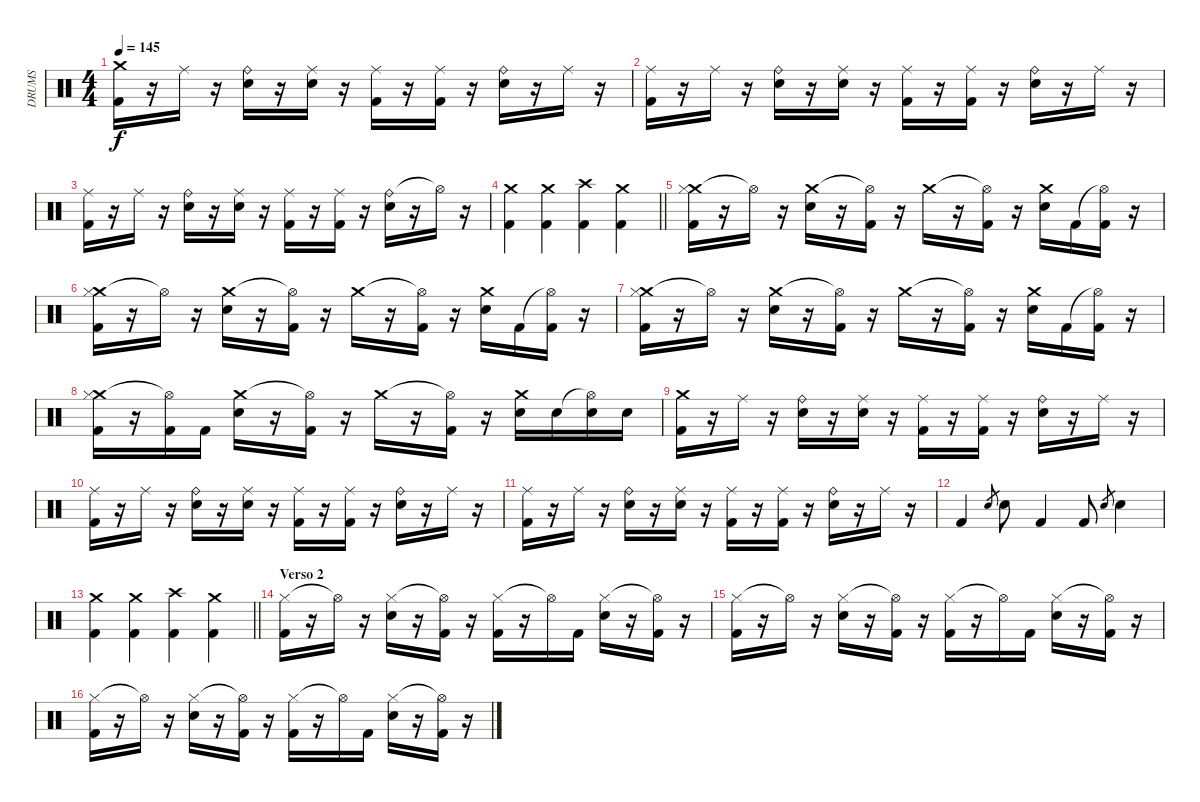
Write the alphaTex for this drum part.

\track ("DRUMS" "DRUMS") {instrument percussion}
\staff {score}
\articulation defaults
\ts (4 4)
\tempo 145
\clef neutral
\ks c
("Crash medium (hit)" "Kick (hit) 2").16{dy f} r.16 "Ride (middle)".16 r.16 ("Ride (bell)" "Electric Snare (hit)").16 r.16 ("Ride (middle)" "Electric Snare (hit)").16 r.16 ("Ride (middle)" "Kick (hit) 2").16 r.16 ("Ride (middle)" "Kick (hit) 2").16 r.16 ("Ride (bell)" "Electric Snare (hit)").16 r.16 "Ride (middle)".16 r.16 |
("Ride (middle)" "Kick (hit) 2").16 r.16 "Ride (middle)".16 r.16 ("Ride (bell)" "Electric Snare (hit)").16 r.16 ("Ride (middle)" "Electric Snare (hit)").16 r.16 ("Ride (middle)" "Kick (hit) 2").16 r.16 ("Ride (middle)" "Kick (hit) 2").16 r.16 ("Ride (bell)" "Electric Snare (hit)").16 r.16 "Ride (middle)".16 r.16 |
("Ride (middle)" "Kick (hit) 2").16 r.16 "Ride (middle)".16 r.16 ("Ride (bell)" "Electric Snare (hit)").16 r.16 ("Ride (middle)" "Electric Snare (hit)").16 r.16 ("Ride (middle)" "Kick (hit) 2").16 r.16 ("Ride (middle)" "Kick (hit) 2").16 r.16 ("Ride (bell)" "Electric Snare (hit)").16 r.16 "Hi-Hat (open)"{t}.16 r.16 |
\barLineRight lightlight
("Crash medium (hit)" "Kick (hit) 2").4 ("Crash medium (hit)" "Kick (hit) 2").4 ("Crash high (hit)" "Kick (hit) 2").4 ("Crash medium (hit)" "Kick (hit) 2").4 |
("Crash medium (hit)" "Hi-Hat (closed)" "Kick (hit) 2").16 r.16 "Hi-Hat (open)"{t}.16 r.16 ("Crash medium (hit)" "Electric Snare (hit)").16 r.16 ("Hi-Hat (open)"{t} "Kick (hit) 2").16 r.16 "Crash medium (hit)".16 r.16 ("Hi-Hat (open)"{t} "Kick (hit) 2").16 r.16 ("Crash medium (hit)" "Electric Snare (hit)").16 "Kick (hit) 2".16 ("Hi-Hat (open)"{t} "Kick (hit) 2").16 r.16 |
("Crash medium (hit)" "Hi-Hat (closed)" "Kick (hit) 2").16 r.16 "Hi-Hat (open)"{t}.16 r.16 ("Crash medium (hit)" "Electric Snare (hit)").16 r.16 ("Hi-Hat (open)"{t} "Kick (hit) 2").16 r.16 "Crash medium (hit)".16 r.16 ("Hi-Hat (open)"{t} "Kick (hit) 2").16 r.16 ("Crash medium (hit)" "Electric Snare (hit)").16 "Kick (hit) 2".16 ("Hi-Hat (open)"{t} "Kick (hit) 2").16 r.16 |
("Crash medium (hit)" "Hi-Hat (closed)" "Kick (hit) 2").16 r.16 "Hi-Hat (open)"{t}.16 r.16 ("Crash medium (hit)" "Electric Snare (hit)").16 r.16 ("Hi-Hat (open)"{t} "Kick (hit) 2").16 r.16 "Crash medium (hit)".16 r.16 ("Hi-Hat (open)"{t} "Kick (hit) 2").16 r.16 ("Crash medium (hit)" "Electric Snare (hit)").16 "Kick (hit) 2".16 ("Hi-Hat (open)"{t} "Kick (hit) 2").16 r.16 |
("Crash medium (hit)" "Hi-Hat (closed)" "Kick (hit) 2").16 r.16 ("Hi-Hat (open)"{t} "Kick (hit) 2").16 "Kick (hit) 2".16 ("Crash medium (hit)" "Electric Snare (hit)").16 r.16 ("Hi-Hat (open)"{t} "Kick (hit) 2").16 r.16 "Crash medium (hit)".16 r.16 ("Hi-Hat (open)"{t} "Kick (hit) 2").16 r.16 ("Crash medium (hit)" "Electric Snare (hit)").16 "Electric Snare (hit)".16 ("Hi-Hat (open)"{t} "Electric Snare (hit)").16 "Electric Snare (hit)".16 |
("Crash medium (hit)" "Kick (hit) 2").16 r.16 "Ride (middle)".16 r.16 ("Ride (bell)" "Electric Snare (hit)").16 r.16 ("Ride (middle)" "Electric Snare (hit)").16 r.16 ("Ride (middle)" "Kick (hit) 2").16 r.16 ("Ride (middle)" "Kick (hit) 2").16 r.16 ("Ride (bell)" "Electric Snare (hit)").16 r.16 "Ride (middle)".16 r.16 |
("Ride (middle)" "Kick (hit) 2").16 r.16 "Ride (middle)".16 r.16 ("Ride (bell)" "Electric Snare (hit)").16 r.16 ("Ride (middle)" "Electric Snare (hit)").16 r.16 ("Ride (middle)" "Kick (hit) 2").16 r.16 ("Ride (middle)" "Kick (hit) 2").16 r.16 ("Ride (bell)" "Electric Snare (hit)").16 r.16 "Ride (middle)".16 r.16 |
("Ride (middle)" "Kick (hit) 2").16 r.16 "Ride (middle)".16 r.16 ("Ride (bell)" "Electric Snare (hit)").16 r.16 ("Ride (middle)" "Electric Snare (hit)").16 r.16 ("Ride (middle)" "Kick (hit) 2").16 r.16 ("Ride (middle)" "Kick (hit) 2").16 r.16 ("Ride (bell)" "Electric Snare (hit)").16 r.16 "Ride (middle)".16 r.16 |
"Kick (hit) 2".4 "Electric Snare (hit)".8{gr} "Electric Snare (hit)".8 "Kick (hit) 2".4 "Kick (hit) 2".8 "Electric Snare (hit)".8{gr} "Electric Snare (hit)".4 |
\barLineRight lightlight
("Crash medium (hit)" "Kick (hit) 2").4 ("Crash medium (hit)" "Kick (hit) 2").4 ("Crash high (hit)" "Kick (hit) 2").4 ("Crash medium (hit)" "Kick (hit) 2").4 |
\section ("" "Verso 2")
("Hi-Hat (closed)" "Kick (hit) 2").16 r.16 "Hi-Hat (open)"{t}.16 r.16 ("Hi-Hat (closed)" "Electric Snare (hit)").16 r.16 ("Hi-Hat (open)"{t} "Kick (hit) 2").16 r.16 ("Hi-Hat (closed)" "Kick (hit) 2").16 r.16 "Hi-Hat (open)"{t}.16 "Kick (hit) 2".16 ("Hi-Hat (closed)" "Electric Snare (hit)").16 r.16 ("Hi-Hat (open)"{t} "Kick (hit) 2").16 r.16 |
("Hi-Hat (closed)" "Kick (hit) 2").16 r.16 "Hi-Hat (open)"{t}.16 r.16 ("Hi-Hat (closed)" "Electric Snare (hit)").16 r.16 ("Hi-Hat (open)"{t} "Kick (hit) 2").16 r.16 ("Hi-Hat (closed)" "Kick (hit) 2").16 r.16 "Hi-Hat (open)"{t}.16 "Kick (hit) 2".16 ("Hi-Hat (closed)" "Electric Snare (hit)").16 r.16 ("Hi-Hat (open)"{t} "Kick (hit) 2").16 r.16 |
("Hi-Hat (closed)" "Kick (hit) 2").16 r.16 "Hi-Hat (open)"{t}.16 r.16 ("Hi-Hat (closed)" "Electric Snare (hit)").16 r.16 ("Hi-Hat (open)"{t} "Kick (hit) 2").16 r.16 ("Hi-Hat (closed)" "Kick (hit) 2").16 r.16 "Hi-Hat (open)"{t}.16 "Kick (hit) 2".16 ("Hi-Hat (closed)" "Electric Snare (hit)").16 r.16 ("Hi-Hat (open)"{t} "Kick (hit) 2").16 r.16
